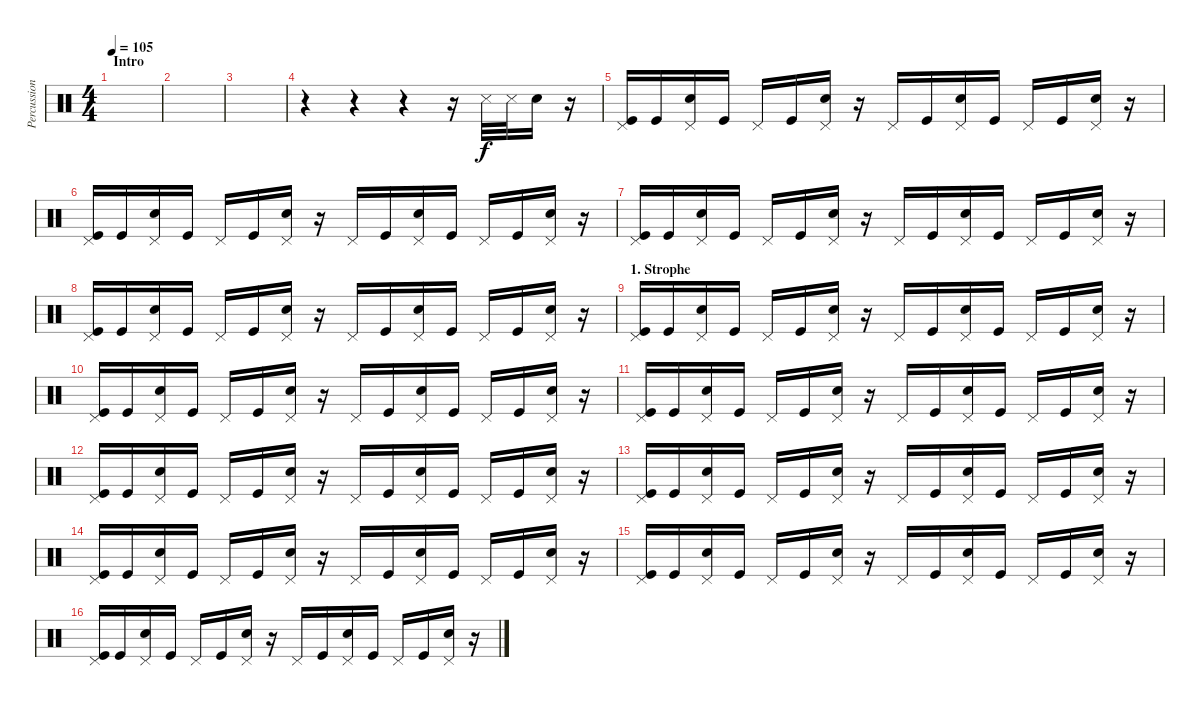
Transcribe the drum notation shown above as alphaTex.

\track ("Percussion" "Percussion") {instrument percussion}
\staff {score}
\articulation defaults
\ts (4 4)
\section ("" "Intro")
\tempo 105
\clef neutral
\ks c
|
|
|
r.4 r.4 r.4 r.16 "Snare (side stick) 3".32 "Snare (side stick) 3".32 "Snare (hit) 2".16 r.16 |
("Pedal Hi-Hat (hit)" "Kick (hit)").16 "Kick (hit)".16 ("Pedal Hi-Hat (hit)" "Snare (hit) 2").16 "Kick (hit)".16 "Pedal Hi-Hat (hit)".16 "Kick (hit)".16 ("Pedal Hi-Hat (hit)" "Snare (hit) 2").16 r.16 "Pedal Hi-Hat (hit)".16 "Kick (hit)".16 ("Pedal Hi-Hat (hit)" "Snare (hit) 2").16 "Kick (hit)".16 "Pedal Hi-Hat (hit)".16 "Kick (hit)".16 ("Pedal Hi-Hat (hit)" "Snare (hit) 2").16 r.16 |
("Pedal Hi-Hat (hit)" "Kick (hit)").16 "Kick (hit)".16 ("Pedal Hi-Hat (hit)" "Snare (hit) 2").16 "Kick (hit)".16 "Pedal Hi-Hat (hit)".16 "Kick (hit)".16 ("Pedal Hi-Hat (hit)" "Snare (hit) 2").16 r.16 "Pedal Hi-Hat (hit)".16 "Kick (hit)".16 ("Pedal Hi-Hat (hit)" "Snare (hit) 2").16 "Kick (hit)".16 "Pedal Hi-Hat (hit)".16 "Kick (hit)".16 ("Pedal Hi-Hat (hit)" "Snare (hit) 2").16 r.16 |
("Pedal Hi-Hat (hit)" "Kick (hit)").16 "Kick (hit)".16 ("Pedal Hi-Hat (hit)" "Snare (hit) 2").16 "Kick (hit)".16 "Pedal Hi-Hat (hit)".16 "Kick (hit)".16 ("Pedal Hi-Hat (hit)" "Snare (hit) 2").16 r.16 "Pedal Hi-Hat (hit)".16 "Kick (hit)".16 ("Pedal Hi-Hat (hit)" "Snare (hit) 2").16 "Kick (hit)".16 "Pedal Hi-Hat (hit)".16 "Kick (hit)".16 ("Pedal Hi-Hat (hit)" "Snare (hit) 2").16 r.16 |
("Pedal Hi-Hat (hit)" "Kick (hit)").16 "Kick (hit)".16 ("Pedal Hi-Hat (hit)" "Snare (hit) 2").16 "Kick (hit)".16 "Pedal Hi-Hat (hit)".16 "Kick (hit)".16 ("Pedal Hi-Hat (hit)" "Snare (hit) 2").16 r.16 "Pedal Hi-Hat (hit)".16 "Kick (hit)".16 ("Pedal Hi-Hat (hit)" "Snare (hit) 2").16 "Kick (hit)".16 "Pedal Hi-Hat (hit)".16 "Kick (hit)".16 ("Pedal Hi-Hat (hit)" "Snare (hit) 2").16 r.16 |
\section ("" "1. Strophe")
("Pedal Hi-Hat (hit)" "Kick (hit)").16 "Kick (hit)".16 ("Pedal Hi-Hat (hit)" "Snare (hit) 2").16 "Kick (hit)".16 "Pedal Hi-Hat (hit)".16 "Kick (hit)".16 ("Pedal Hi-Hat (hit)" "Snare (hit) 2").16 r.16 "Pedal Hi-Hat (hit)".16 "Kick (hit)".16 ("Pedal Hi-Hat (hit)" "Snare (hit) 2").16 "Kick (hit)".16 "Pedal Hi-Hat (hit)".16 "Kick (hit)".16 ("Pedal Hi-Hat (hit)" "Snare (hit) 2").16 r.16 |
("Pedal Hi-Hat (hit)" "Kick (hit)").16 "Kick (hit)".16 ("Pedal Hi-Hat (hit)" "Snare (hit) 2").16 "Kick (hit)".16 "Pedal Hi-Hat (hit)".16 "Kick (hit)".16 ("Pedal Hi-Hat (hit)" "Snare (hit) 2").16 r.16 "Pedal Hi-Hat (hit)".16 "Kick (hit)".16 ("Pedal Hi-Hat (hit)" "Snare (hit) 2").16 "Kick (hit)".16 "Pedal Hi-Hat (hit)".16 "Kick (hit)".16 ("Pedal Hi-Hat (hit)" "Snare (hit) 2").16 r.16 |
("Pedal Hi-Hat (hit)" "Kick (hit)").16 "Kick (hit)".16 ("Pedal Hi-Hat (hit)" "Snare (hit) 2").16 "Kick (hit)".16 "Pedal Hi-Hat (hit)".16 "Kick (hit)".16 ("Pedal Hi-Hat (hit)" "Snare (hit) 2").16 r.16 "Pedal Hi-Hat (hit)".16 "Kick (hit)".16 ("Pedal Hi-Hat (hit)" "Snare (hit) 2").16 "Kick (hit)".16 "Pedal Hi-Hat (hit)".16 "Kick (hit)".16 ("Pedal Hi-Hat (hit)" "Snare (hit) 2").16 r.16 |
("Pedal Hi-Hat (hit)" "Kick (hit)").16 "Kick (hit)".16 ("Pedal Hi-Hat (hit)" "Snare (hit) 2").16 "Kick (hit)".16 "Pedal Hi-Hat (hit)".16 "Kick (hit)".16 ("Pedal Hi-Hat (hit)" "Snare (hit) 2").16 r.16 "Pedal Hi-Hat (hit)".16 "Kick (hit)".16 ("Pedal Hi-Hat (hit)" "Snare (hit) 2").16 "Kick (hit)".16 "Pedal Hi-Hat (hit)".16 "Kick (hit)".16 ("Pedal Hi-Hat (hit)" "Snare (hit) 2").16 r.16 |
("Pedal Hi-Hat (hit)" "Kick (hit)").16 "Kick (hit)".16 ("Pedal Hi-Hat (hit)" "Snare (hit) 2").16 "Kick (hit)".16 "Pedal Hi-Hat (hit)".16 "Kick (hit)".16 ("Pedal Hi-Hat (hit)" "Snare (hit) 2").16 r.16 "Pedal Hi-Hat (hit)".16 "Kick (hit)".16 ("Pedal Hi-Hat (hit)" "Snare (hit) 2").16 "Kick (hit)".16 "Pedal Hi-Hat (hit)".16 "Kick (hit)".16 ("Pedal Hi-Hat (hit)" "Snare (hit) 2").16 r.16 |
("Pedal Hi-Hat (hit)" "Kick (hit)").16 "Kick (hit)".16 ("Pedal Hi-Hat (hit)" "Snare (hit) 2").16 "Kick (hit)".16 "Pedal Hi-Hat (hit)".16 "Kick (hit)".16 ("Pedal Hi-Hat (hit)" "Snare (hit) 2").16 r.16 "Pedal Hi-Hat (hit)".16 "Kick (hit)".16 ("Pedal Hi-Hat (hit)" "Snare (hit) 2").16 "Kick (hit)".16 "Pedal Hi-Hat (hit)".16 "Kick (hit)".16 ("Pedal Hi-Hat (hit)" "Snare (hit) 2").16 r.16 |
("Pedal Hi-Hat (hit)" "Kick (hit)").16 "Kick (hit)".16 ("Pedal Hi-Hat (hit)" "Snare (hit) 2").16 "Kick (hit)".16 "Pedal Hi-Hat (hit)".16 "Kick (hit)".16 ("Pedal Hi-Hat (hit)" "Snare (hit) 2").16 r.16 "Pedal Hi-Hat (hit)".16 "Kick (hit)".16 ("Pedal Hi-Hat (hit)" "Snare (hit) 2").16 "Kick (hit)".16 "Pedal Hi-Hat (hit)".16 "Kick (hit)".16 ("Pedal Hi-Hat (hit)" "Snare (hit) 2").16 r.16 |
("Pedal Hi-Hat (hit)" "Kick (hit)").16 "Kick (hit)".16 ("Pedal Hi-Hat (hit)" "Snare (hit) 2").16 "Kick (hit)".16 "Pedal Hi-Hat (hit)".16 "Kick (hit)".16 ("Pedal Hi-Hat (hit)" "Snare (hit) 2").16 r.16 "Pedal Hi-Hat (hit)".16 "Kick (hit)".16 ("Pedal Hi-Hat (hit)" "Snare (hit) 2").16 "Kick (hit)".16 "Pedal Hi-Hat (hit)".16 "Kick (hit)".16 ("Pedal Hi-Hat (hit)" "Snare (hit) 2").16 r.16
